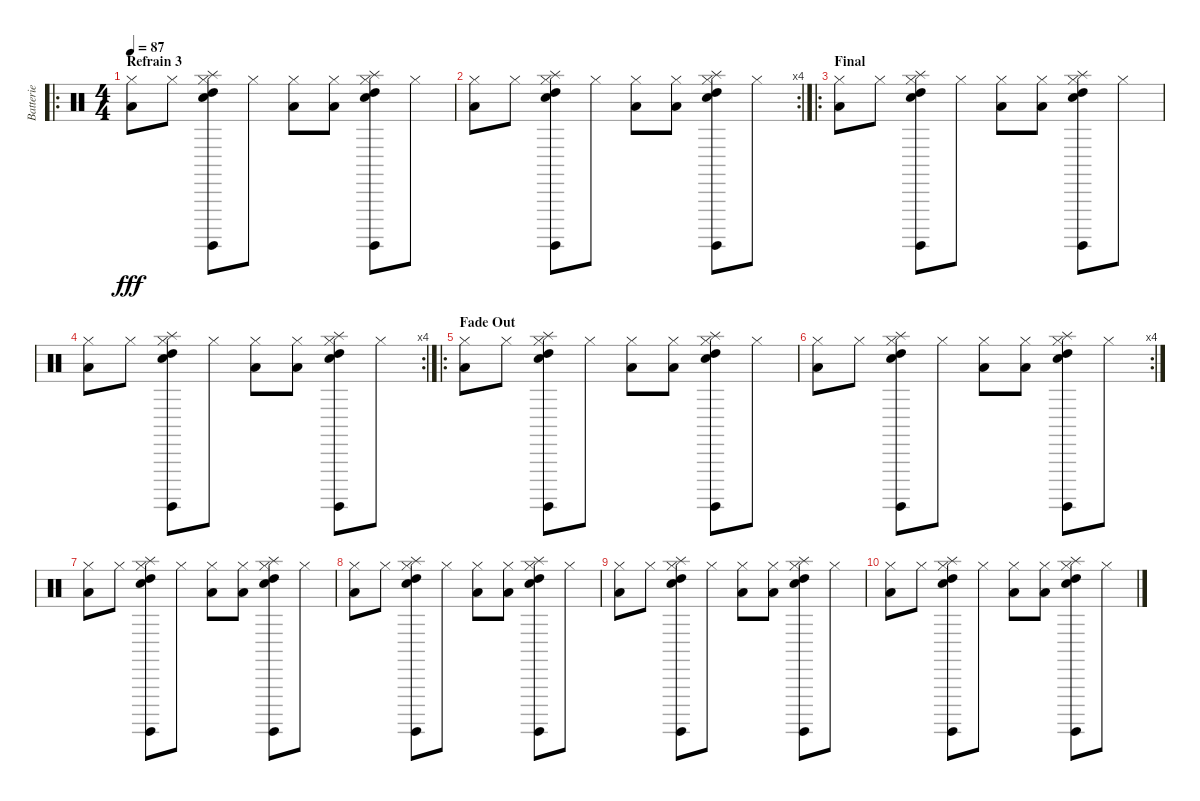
\track ("Batterie" "Batterie") {instrument percussion}
\staff {score}
\articulation defaults
\ro
\ts (4 4)
\section ("" "Refrain 3")
\tempo 87
\clef neutral
\ks c
("Hi-Hat (closed)" "Low Floor Tom (hit)").8{dy fff} "Hi-Hat (closed)".8 ("Hi-Hat (closed)" "Snare (hit) 2" "High Tom (hit)" "Surdo (hit)" "Splash (hit)").8 "Hi-Hat (closed)".8 ("Hi-Hat (closed)" "Low Floor Tom (hit)").8 ("Hi-Hat (closed)" "Low Floor Tom (hit)").8 ("Hi-Hat (closed)" "Snare (hit) 2" "High Tom (hit)" "Surdo (hit)" "Splash (hit)").8 "Hi-Hat (closed)".8 |
\rc 4
("Hi-Hat (closed)" "Low Floor Tom (hit)").8 "Hi-Hat (closed)".8 ("Hi-Hat (closed)" "Snare (hit) 2" "High Tom (hit)" "Surdo (hit)" "Splash (hit)").8 "Hi-Hat (closed)".8 ("Hi-Hat (closed)" "Low Floor Tom (hit)").8 ("Hi-Hat (closed)" "Low Floor Tom (hit)").8 ("Hi-Hat (closed)" "Snare (hit) 2" "High Tom (hit)" "Surdo (hit)" "Splash (hit)").8 "Hi-Hat (closed)".8 |
\ro
\section ("" "Final")
("Hi-Hat (closed)" "Low Floor Tom (hit)").8 "Hi-Hat (closed)".8 ("Hi-Hat (closed)" "Snare (hit) 2" "High Tom (hit)" "Surdo (hit)" "Splash (hit)").8 "Hi-Hat (closed)".8 ("Hi-Hat (closed)" "Low Floor Tom (hit)").8 ("Hi-Hat (closed)" "Low Floor Tom (hit)").8 ("Hi-Hat (closed)" "Snare (hit) 2" "High Tom (hit)" "Surdo (hit)" "Splash (hit)").8 "Hi-Hat (closed)".8 |
\rc 4
("Hi-Hat (closed)" "Low Floor Tom (hit)").8 "Hi-Hat (closed)".8 ("Hi-Hat (closed)" "Snare (hit) 2" "High Tom (hit)" "Surdo (hit)" "Splash (hit)").8 "Hi-Hat (closed)".8 ("Hi-Hat (closed)" "Low Floor Tom (hit)").8 ("Hi-Hat (closed)" "Low Floor Tom (hit)").8 ("Hi-Hat (closed)" "Snare (hit) 2" "High Tom (hit)" "Surdo (hit)" "Splash (hit)").8 "Hi-Hat (closed)".8 |
\ro
\section ("" "Fade Out")
("Hi-Hat (closed)" "Low Floor Tom (hit)").8 "Hi-Hat (closed)".8 ("Hi-Hat (closed)" "Snare (hit) 2" "High Tom (hit)" "Surdo (hit)" "Splash (hit)").8 "Hi-Hat (closed)".8 ("Hi-Hat (closed)" "Low Floor Tom (hit)").8 ("Hi-Hat (closed)" "Low Floor Tom (hit)").8 ("Hi-Hat (closed)" "Snare (hit) 2" "High Tom (hit)" "Surdo (hit)" "Splash (hit)").8 "Hi-Hat (closed)".8 |
\rc 4
("Hi-Hat (closed)" "Low Floor Tom (hit)").8 "Hi-Hat (closed)".8 ("Hi-Hat (closed)" "Snare (hit) 2" "High Tom (hit)" "Surdo (hit)" "Splash (hit)").8 "Hi-Hat (closed)".8 ("Hi-Hat (closed)" "Low Floor Tom (hit)").8 ("Hi-Hat (closed)" "Low Floor Tom (hit)").8 ("Hi-Hat (closed)" "Snare (hit) 2" "High Tom (hit)" "Surdo (hit)" "Splash (hit)").8 "Hi-Hat (closed)".8 |
("Hi-Hat (closed)" "Low Floor Tom (hit)").8{volume 0} "Hi-Hat (closed)".8 ("Hi-Hat (closed)" "Snare (hit) 2" "High Tom (hit)" "Surdo (hit)" "Splash (hit)").8 "Hi-Hat (closed)".8 ("Hi-Hat (closed)" "Low Floor Tom (hit)").8 ("Hi-Hat (closed)" "Low Floor Tom (hit)").8 ("Hi-Hat (closed)" "Snare (hit) 2" "High Tom (hit)" "Surdo (hit)" "Splash (hit)").8 "Hi-Hat (closed)".8 |
("Hi-Hat (closed)" "Low Floor Tom (hit)").8 "Hi-Hat (closed)".8 ("Hi-Hat (closed)" "Snare (hit) 2" "High Tom (hit)" "Surdo (hit)" "Splash (hit)").8 "Hi-Hat (closed)".8 ("Hi-Hat (closed)" "Low Floor Tom (hit)").8 ("Hi-Hat (closed)" "Low Floor Tom (hit)").8 ("Hi-Hat (closed)" "Snare (hit) 2" "High Tom (hit)" "Surdo (hit)" "Splash (hit)").8 "Hi-Hat (closed)".8 |
("Hi-Hat (closed)" "Low Floor Tom (hit)").8 "Hi-Hat (closed)".8 ("Hi-Hat (closed)" "Snare (hit) 2" "High Tom (hit)" "Surdo (hit)" "Splash (hit)").8 "Hi-Hat (closed)".8 ("Hi-Hat (closed)" "Low Floor Tom (hit)").8 ("Hi-Hat (closed)" "Low Floor Tom (hit)").8 ("Hi-Hat (closed)" "Snare (hit) 2" "High Tom (hit)" "Surdo (hit)" "Splash (hit)").8 "Hi-Hat (closed)".8 |
("Hi-Hat (closed)" "Low Floor Tom (hit)").8 "Hi-Hat (closed)".8 ("Hi-Hat (closed)" "Snare (hit) 2" "High Tom (hit)" "Surdo (hit)" "Splash (hit)").8 "Hi-Hat (closed)".8 ("Hi-Hat (closed)" "Low Floor Tom (hit)").8 ("Hi-Hat (closed)" "Low Floor Tom (hit)").8 ("Hi-Hat (closed)" "Snare (hit) 2" "High Tom (hit)" "Surdo (hit)" "Splash (hit)").8 "Hi-Hat (closed)".8
